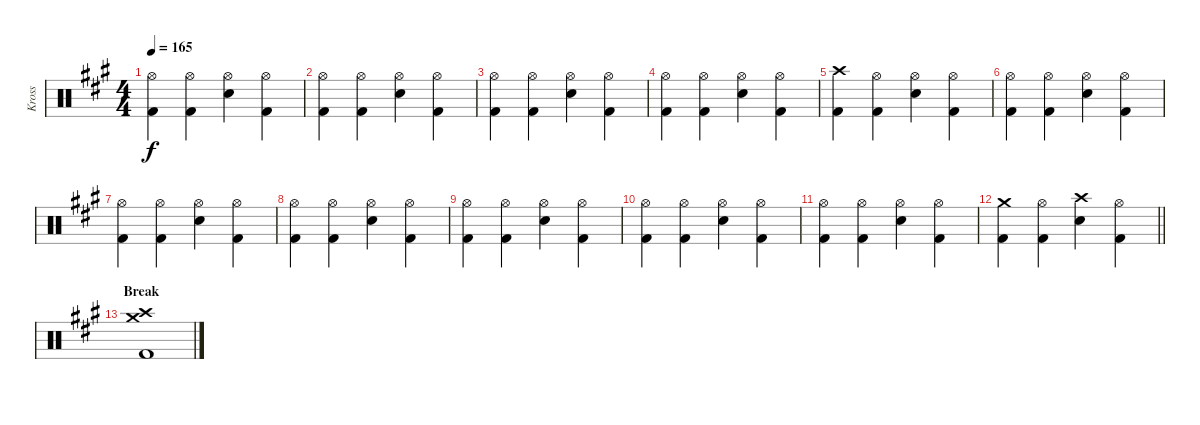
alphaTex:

\track ("Kross" "Kross") {instrument percussion}
\staff {score}
\articulation defaults
\ts (4 4)
\tempo 165
\clef neutral
\ks a
("Hi-Hat (open)" "Kick (hit) 2").4{dy f} ("Hi-Hat (open)" "Kick (hit) 2").4 ("Hi-Hat (open)" "Snare (hit) 2").4 ("Hi-Hat (open)" "Kick (hit) 2").4 |
("Hi-Hat (open)" "Kick (hit) 2").4 ("Hi-Hat (open)" "Kick (hit) 2").4 ("Hi-Hat (open)" "Snare (hit) 2").4 ("Hi-Hat (open)" "Kick (hit) 2").4 |
("Hi-Hat (open)" "Kick (hit) 2").4 ("Hi-Hat (open)" "Kick (hit) 2").4 ("Hi-Hat (open)" "Snare (hit) 2").4 ("Hi-Hat (open)" "Kick (hit) 2").4 |
("Hi-Hat (open)" "Kick (hit) 2").4 ("Hi-Hat (open)" "Kick (hit) 2").4 ("Hi-Hat (open)" "Snare (hit) 2").4 ("Hi-Hat (open)" "Kick (hit) 2").4 |
("Crash high (hit)" "Kick (hit) 2").4 ("Hi-Hat (open)" "Kick (hit) 2").4 ("Hi-Hat (open)" "Snare (hit) 2").4 ("Hi-Hat (open)" "Kick (hit) 2").4 |
("Hi-Hat (open)" "Kick (hit) 2").4 ("Hi-Hat (open)" "Kick (hit) 2").4 ("Hi-Hat (open)" "Snare (hit) 2").4 ("Hi-Hat (open)" "Kick (hit) 2").4 |
("Hi-Hat (open)" "Kick (hit) 2").4 ("Hi-Hat (open)" "Kick (hit) 2").4 ("Hi-Hat (open)" "Snare (hit) 2").4 ("Hi-Hat (open)" "Kick (hit) 2").4 |
("Hi-Hat (open)" "Kick (hit) 2").4 ("Hi-Hat (open)" "Kick (hit) 2").4 ("Hi-Hat (open)" "Snare (hit) 2").4 ("Hi-Hat (open)" "Kick (hit) 2").4 |
("Hi-Hat (open)" "Kick (hit) 2").4 ("Hi-Hat (open)" "Kick (hit) 2").4 ("Hi-Hat (open)" "Snare (hit) 2").4 ("Hi-Hat (open)" "Kick (hit) 2").4 |
("Hi-Hat (open)" "Kick (hit) 2").4 ("Hi-Hat (open)" "Kick (hit) 2").4 ("Hi-Hat (open)" "Snare (hit) 2").4 ("Hi-Hat (open)" "Kick (hit) 2").4 |
("Hi-Hat (open)" "Kick (hit) 2").4 ("Hi-Hat (open)" "Kick (hit) 2").4 ("Hi-Hat (open)" "Snare (hit) 2").4 ("Hi-Hat (open)" "Kick (hit) 2").4 |
\barLineRight lightlight
("Crash medium (hit)" "Kick (hit) 2").4 ("Hi-Hat (open)" "Kick (hit) 2").4 ("Crash high (hit)" "Snare (hit) 2").4 ("Hi-Hat (open)" "Kick (hit) 2").4 |
\section ("" "Break")
("Crash high (hit)" "Crash medium (hit)" "Kick (hit) 2").1
